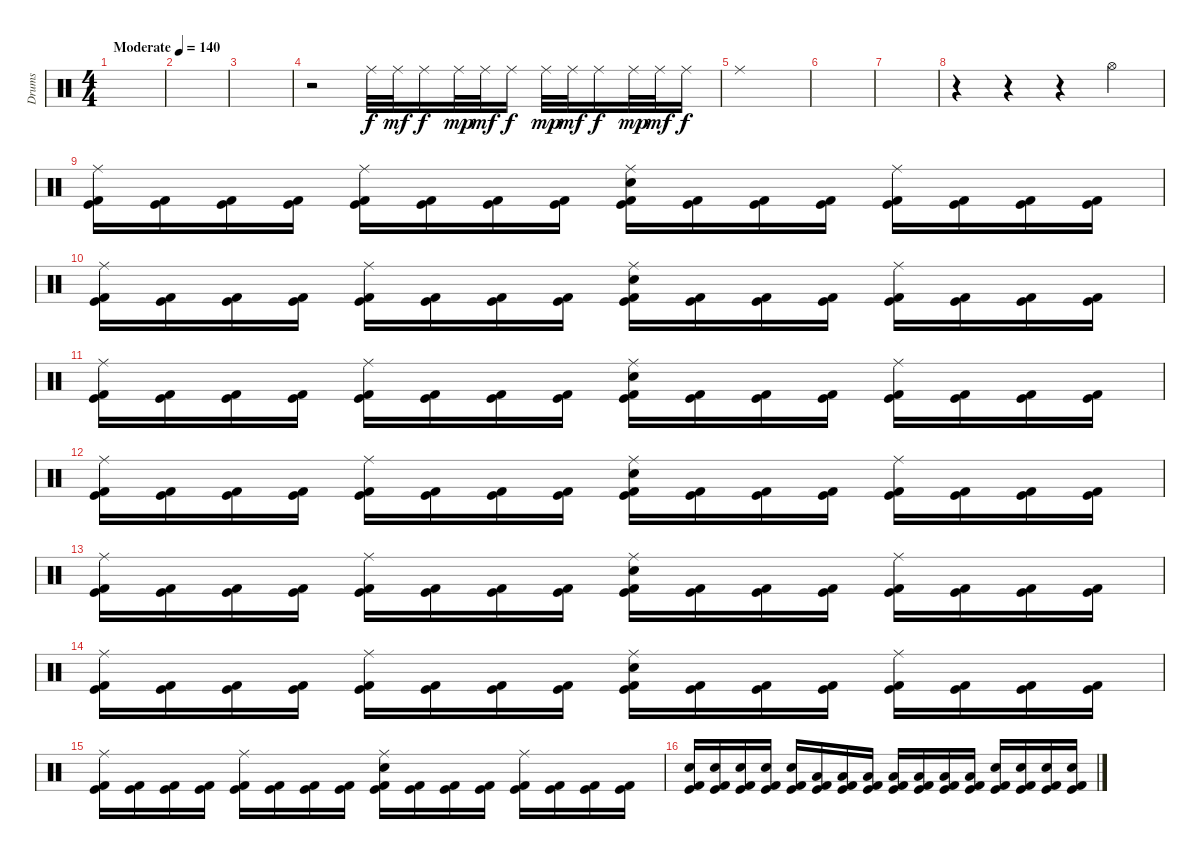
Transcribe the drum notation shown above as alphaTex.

\track ("Drums" "Drums") {instrument percussion}
\staff {score}
\articulation defaults
\ts (4 4)
\tempo (140 "Moderate")
\clef neutral
\ks c
|
|
|
r.2 "Ride (middle)".32 "Ride (middle)".32{dy mf} "Ride (middle)".16{dy f} "Ride (middle)".32{dy mp} "Ride (middle)".32{dy mf} "Ride (middle)".16{dy f} "Ride (middle)".32{dy mp} "Ride (middle)".32{dy mf} "Ride (middle)".16{dy f} "Ride (middle)".32{dy mp} "Ride (middle)".32{dy mf} "Ride (middle)".16{dy f} |
"Ride (middle)".1 |
|
|
r.4 r.4 r.4 "Hi-Hat (open)".4 |
("Ride (middle)" "Kick (hit)" "Kick (hit) 2").16 ("Kick (hit)" "Kick (hit) 2").16 ("Kick (hit)" "Kick (hit) 2").16 ("Kick (hit)" "Kick (hit) 2").16 ("Ride (middle)" "Kick (hit)" "Kick (hit) 2").16 ("Kick (hit)" "Kick (hit) 2").16 ("Kick (hit)" "Kick (hit) 2").16 ("Kick (hit)" "Kick (hit) 2").16 ("Ride (middle)" "Electric Snare (hit)" "Kick (hit)" "Kick (hit) 2").16 ("Kick (hit)" "Kick (hit) 2").16 ("Kick (hit)" "Kick (hit) 2").16 ("Kick (hit)" "Kick (hit) 2").16 ("Ride (middle)" "Kick (hit)" "Kick (hit) 2").16 ("Kick (hit)" "Kick (hit) 2").16 ("Kick (hit)" "Kick (hit) 2").16 ("Kick (hit)" "Kick (hit) 2").16 |
("Ride (middle)" "Kick (hit)" "Kick (hit) 2").16 ("Kick (hit)" "Kick (hit) 2").16 ("Kick (hit)" "Kick (hit) 2").16 ("Kick (hit)" "Kick (hit) 2").16 ("Ride (middle)" "Kick (hit)" "Kick (hit) 2").16 ("Kick (hit)" "Kick (hit) 2").16 ("Kick (hit)" "Kick (hit) 2").16 ("Kick (hit)" "Kick (hit) 2").16 ("Ride (middle)" "Electric Snare (hit)" "Kick (hit)" "Kick (hit) 2").16 ("Kick (hit)" "Kick (hit) 2").16 ("Kick (hit)" "Kick (hit) 2").16 ("Kick (hit)" "Kick (hit) 2").16 ("Ride (middle)" "Kick (hit)" "Kick (hit) 2").16 ("Kick (hit)" "Kick (hit) 2").16 ("Kick (hit)" "Kick (hit) 2").16 ("Kick (hit)" "Kick (hit) 2").16 |
("Ride (middle)" "Kick (hit)" "Kick (hit) 2").16 ("Kick (hit)" "Kick (hit) 2").16 ("Kick (hit)" "Kick (hit) 2").16 ("Kick (hit)" "Kick (hit) 2").16 ("Ride (middle)" "Kick (hit)" "Kick (hit) 2").16 ("Kick (hit)" "Kick (hit) 2").16 ("Kick (hit)" "Kick (hit) 2").16 ("Kick (hit)" "Kick (hit) 2").16 ("Ride (middle)" "Electric Snare (hit)" "Kick (hit)" "Kick (hit) 2").16 ("Kick (hit)" "Kick (hit) 2").16 ("Kick (hit)" "Kick (hit) 2").16 ("Kick (hit)" "Kick (hit) 2").16 ("Ride (middle)" "Kick (hit)" "Kick (hit) 2").16 ("Kick (hit)" "Kick (hit) 2").16 ("Kick (hit)" "Kick (hit) 2").16 ("Kick (hit)" "Kick (hit) 2").16 |
("Ride (middle)" "Kick (hit)" "Kick (hit) 2").16 ("Kick (hit)" "Kick (hit) 2").16 ("Kick (hit)" "Kick (hit) 2").16 ("Kick (hit)" "Kick (hit) 2").16 ("Ride (middle)" "Kick (hit)" "Kick (hit) 2").16 ("Kick (hit)" "Kick (hit) 2").16 ("Kick (hit)" "Kick (hit) 2").16 ("Kick (hit)" "Kick (hit) 2").16 ("Ride (middle)" "Electric Snare (hit)" "Kick (hit)" "Kick (hit) 2").16 ("Kick (hit)" "Kick (hit) 2").16 ("Kick (hit)" "Kick (hit) 2").16 ("Kick (hit)" "Kick (hit) 2").16 ("Ride (middle)" "Kick (hit)" "Kick (hit) 2").16 ("Kick (hit)" "Kick (hit) 2").16 ("Kick (hit)" "Kick (hit) 2").16 ("Kick (hit)" "Kick (hit) 2").16 |
("Ride (middle)" "Kick (hit)" "Kick (hit) 2").16 ("Kick (hit)" "Kick (hit) 2").16 ("Kick (hit)" "Kick (hit) 2").16 ("Kick (hit)" "Kick (hit) 2").16 ("Ride (middle)" "Kick (hit)" "Kick (hit) 2").16 ("Kick (hit)" "Kick (hit) 2").16 ("Kick (hit)" "Kick (hit) 2").16 ("Kick (hit)" "Kick (hit) 2").16 ("Ride (middle)" "Electric Snare (hit)" "Kick (hit)" "Kick (hit) 2").16 ("Kick (hit)" "Kick (hit) 2").16 ("Kick (hit)" "Kick (hit) 2").16 ("Kick (hit)" "Kick (hit) 2").16 ("Ride (middle)" "Kick (hit)" "Kick (hit) 2").16 ("Kick (hit)" "Kick (hit) 2").16 ("Kick (hit)" "Kick (hit) 2").16 ("Kick (hit)" "Kick (hit) 2").16 |
("Ride (middle)" "Kick (hit)" "Kick (hit) 2").16 ("Kick (hit)" "Kick (hit) 2").16 ("Kick (hit)" "Kick (hit) 2").16 ("Kick (hit)" "Kick (hit) 2").16 ("Ride (middle)" "Kick (hit)" "Kick (hit) 2").16 ("Kick (hit)" "Kick (hit) 2").16 ("Kick (hit)" "Kick (hit) 2").16 ("Kick (hit)" "Kick (hit) 2").16 ("Ride (middle)" "Electric Snare (hit)" "Kick (hit)" "Kick (hit) 2").16 ("Kick (hit)" "Kick (hit) 2").16 ("Kick (hit)" "Kick (hit) 2").16 ("Kick (hit)" "Kick (hit) 2").16 ("Ride (middle)" "Kick (hit)" "Kick (hit) 2").16 ("Kick (hit)" "Kick (hit) 2").16 ("Kick (hit)" "Kick (hit) 2").16 ("Kick (hit)" "Kick (hit) 2").16 |
("Ride (middle)" "Kick (hit)" "Kick (hit) 2").16 ("Kick (hit)" "Kick (hit) 2").16 ("Kick (hit)" "Kick (hit) 2").16 ("Kick (hit)" "Kick (hit) 2").16 ("Ride (middle)" "Kick (hit)" "Kick (hit) 2").16 ("Kick (hit)" "Kick (hit) 2").16 ("Kick (hit)" "Kick (hit) 2").16 ("Kick (hit)" "Kick (hit) 2").16 ("Ride (middle)" "Electric Snare (hit)" "Kick (hit)" "Kick (hit) 2").16 ("Kick (hit)" "Kick (hit) 2").16 ("Kick (hit)" "Kick (hit) 2").16 ("Kick (hit)" "Kick (hit) 2").16 ("Ride (middle)" "Kick (hit)" "Kick (hit) 2").16 ("Kick (hit)" "Kick (hit) 2").16 ("Kick (hit)" "Kick (hit) 2").16 ("Kick (hit)" "Kick (hit) 2").16 |
("Electric Snare (hit)" "Kick (hit)" "Kick (hit) 2").16 ("Electric Snare (hit)" "Kick (hit)" "Kick (hit) 2").16 ("Electric Snare (hit)" "Kick (hit)" "Kick (hit) 2").16 ("Electric Snare (hit)" "Kick (hit)" "Kick (hit) 2").16 ("Electric Snare (hit)" "Kick (hit)" "Kick (hit) 2").16 ("Low Tom (hit)" "Kick (hit)" "Kick (hit) 2").16 ("Low Tom (hit)" "Kick (hit)" "Kick (hit) 2").16 ("Low Tom (hit)" "Kick (hit)" "Kick (hit) 2").16 ("Low Tom (hit)" "Kick (hit)" "Kick (hit) 2").16 ("Low Tom (hit)" "Kick (hit)" "Kick (hit) 2").16 ("Low Tom (hit)" "Kick (hit)" "Kick (hit) 2").16 ("Low Tom (hit)" "Kick (hit)" "Kick (hit) 2").16 ("Electric Snare (hit)" "Kick (hit)" "Kick (hit) 2").16 ("Electric Snare (hit)" "Kick (hit)" "Kick (hit) 2").16 ("Electric Snare (hit)" "Kick (hit)" "Kick (hit) 2").16 ("Electric Snare (hit)" "Kick (hit)" "Kick (hit) 2").16
